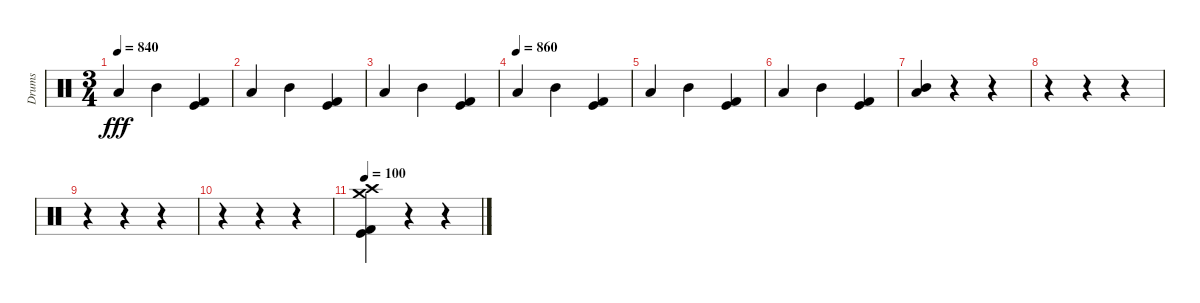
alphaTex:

\track ("Drums" "Drums") {instrument percussion}
\staff {score}
\articulation defaults
\ts (3 4)
\tempo 840
\clef neutral
\ks c "Low Tom (hit)".4{dy fff} "Mid Tom (hit)".4
("Kick (hit)" "Kick (hit) 2").4 |
"Low Tom (hit)".4 "Mid Tom (hit)".4 ("Kick (hit)" "Kick (hit) 2").4 |
"Low Tom (hit)".4 "Mid Tom (hit)".4 ("Kick (hit)" "Kick (hit) 2").4 |
\tempo (860)
"Low Tom (hit)".4 "Mid Tom (hit)".4 ("Kick (hit)" "Kick (hit) 2").4 |
"Low Tom (hit)".4 "Mid Tom (hit)".4 ("Kick (hit)" "Kick (hit) 2").4 |
"Low Tom (hit)".4 "Mid Tom (hit)".4 ("Kick (hit)" "Kick (hit) 2").4 |
("Mid Tom (hit)" "Low Tom (hit)").4{volume 16} r.4 r.4 |
r.4 r.4 r.4 |
r.4 r.4 r.4 |
r.4 r.4 r.4 |
\tempo 100
("Kick (hit)" "Kick (hit) 2" "Crash high (hit)" "Crash medium (hit)").4{volume 16} r.4 r.4
